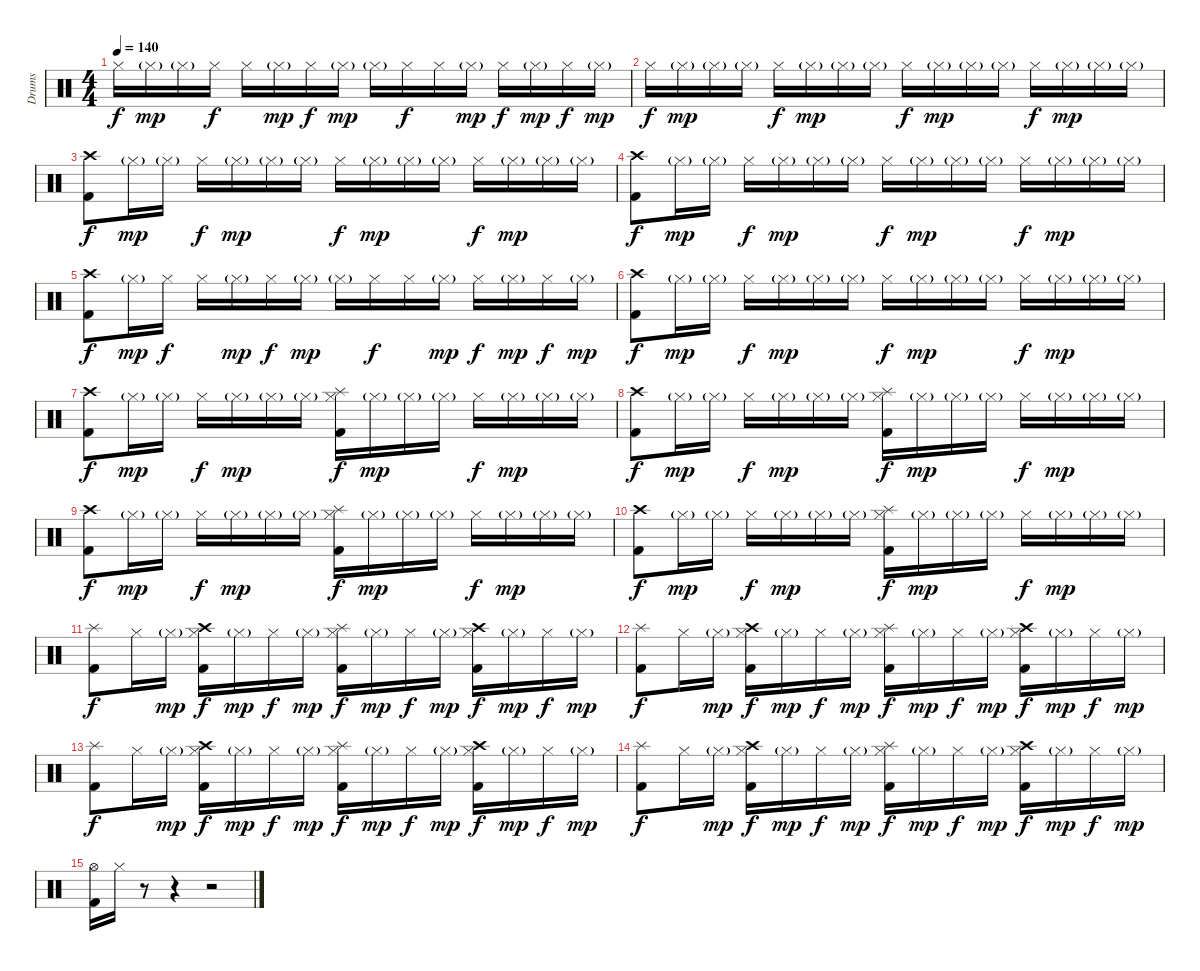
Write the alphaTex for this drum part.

\track ("Drums" "Drums") {instrument percussion}
\staff {score}
\articulation defaults
\ts (4 4)
\tempo 140
\clef neutral
\ks c "Hi-Hat (closed)".16{dy f} "Hi-Hat (closed)"{g}.16{dy mp} "Hi-Hat (closed)"{g}.16 "Hi-Hat (closed)".16{dy f} "Hi-Hat (closed)".16 "Hi-Hat (closed)"{g}.16{dy mp} "Hi-Hat (closed)".16{dy f} "Hi-Hat (closed)"{g}.16{dy mp} "Hi-Hat (closed)"{g}.16 "Hi-Hat (closed)".16{dy f} "Hi-Hat (closed)".16 "Hi-Hat (closed)"{g}.16{dy mp} "Hi-Hat (closed)".16{dy f} "Hi-Hat (closed)"{g}.16{dy mp} "Hi-Hat (closed)".16{dy f} "Hi-Hat (closed)"{g}.16{dy mp}
|
"Hi-Hat (closed)".16{dy f} "Hi-Hat (closed)"{g}.16{dy mp} "Hi-Hat (closed)"{g}.16 "Hi-Hat (closed)"{g}.16 "Hi-Hat (closed)".16{dy f} "Hi-Hat (closed)"{g}.16{dy mp} "Hi-Hat (closed)"{g}.16 "Hi-Hat (closed)"{g}.16 "Hi-Hat (closed)".16{dy f} "Hi-Hat (closed)"{g}.16{dy mp} "Hi-Hat (closed)"{g}.16 "Hi-Hat (closed)"{g}.16 "Hi-Hat (closed)".16{dy f} "Hi-Hat (closed)"{g}.16{dy mp} "Hi-Hat (closed)"{g}.16 "Hi-Hat (closed)"{g}.16 |
("Crash high (hit)" "Kick (hit) 2").8{dy f} "Hi-Hat (closed)"{g}.16{dy mp} "Hi-Hat (closed)"{g}.16 "Hi-Hat (closed)".16{dy f} "Hi-Hat (closed)"{g}.16{dy mp} "Hi-Hat (closed)"{g}.16 "Hi-Hat (closed)"{g}.16 "Hi-Hat (closed)".16{dy f} "Hi-Hat (closed)"{g}.16{dy mp} "Hi-Hat (closed)"{g}.16 "Hi-Hat (closed)"{g}.16 "Hi-Hat (closed)".16{dy f} "Hi-Hat (closed)"{g}.16{dy mp} "Hi-Hat (closed)"{g}.16 "Hi-Hat (closed)"{g}.16 |
("Crash high (hit)" "Kick (hit) 2").8{dy f} "Hi-Hat (closed)"{g}.16{dy mp} "Hi-Hat (closed)"{g}.16 "Hi-Hat (closed)".16{dy f} "Hi-Hat (closed)"{g}.16{dy mp} "Hi-Hat (closed)"{g}.16 "Hi-Hat (closed)"{g}.16 "Hi-Hat (closed)".16{dy f} "Hi-Hat (closed)"{g}.16{dy mp} "Hi-Hat (closed)"{g}.16 "Hi-Hat (closed)"{g}.16 "Hi-Hat (closed)".16{dy f} "Hi-Hat (closed)"{g}.16{dy mp} "Hi-Hat (closed)"{g}.16 "Hi-Hat (closed)"{g}.16 |
("Crash high (hit)" "Kick (hit) 2").8{dy f} "Hi-Hat (closed)"{g}.16{dy mp} "Hi-Hat (closed)".16{dy f} "Hi-Hat (closed)".16 "Hi-Hat (closed)"{g}.16{dy mp} "Hi-Hat (closed)".16{dy f} "Hi-Hat (closed)"{g}.16{dy mp} "Hi-Hat (closed)"{g}.16 "Hi-Hat (closed)".16{dy f} "Hi-Hat (closed)".16 "Hi-Hat (closed)"{g}.16{dy mp} "Hi-Hat (closed)".16{dy f} "Hi-Hat (closed)"{g}.16{dy mp} "Hi-Hat (closed)".16{dy f} "Hi-Hat (closed)"{g}.16{dy mp} |
("Crash high (hit)" "Kick (hit) 2").8{dy f} "Hi-Hat (closed)"{g}.16{dy mp} "Hi-Hat (closed)"{g}.16 "Hi-Hat (closed)".16{dy f} "Hi-Hat (closed)"{g}.16{dy mp} "Hi-Hat (closed)"{g}.16 "Hi-Hat (closed)"{g}.16 "Hi-Hat (closed)".16{dy f} "Hi-Hat (closed)"{g}.16{dy mp} "Hi-Hat (closed)"{g}.16 "Hi-Hat (closed)"{g}.16 "Hi-Hat (closed)".16{dy f} "Hi-Hat (closed)"{g}.16{dy mp} "Hi-Hat (closed)"{g}.16 "Hi-Hat (closed)"{g}.16 |
("Crash high (hit)" "Kick (hit) 2").8{dy f} "Hi-Hat (closed)"{g}.16{dy mp} "Hi-Hat (closed)"{g}.16 "Hi-Hat (closed)".16{dy f} "Hi-Hat (closed)"{g}.16{dy mp} "Hi-Hat (closed)"{g}.16 "Hi-Hat (closed)"{g}.16 ("Splash (hit)" "Hi-Hat (closed)" "Kick (hit) 2").16{dy f} "Hi-Hat (closed)"{g}.16{dy mp} "Hi-Hat (closed)"{g}.16 "Hi-Hat (closed)"{g}.16 "Hi-Hat (closed)".16{dy f} "Hi-Hat (closed)"{g}.16{dy mp} "Hi-Hat (closed)"{g}.16 "Hi-Hat (closed)"{g}.16 |
("Crash high (hit)" "Kick (hit) 2").8{dy f} "Hi-Hat (closed)"{g}.16{dy mp} "Hi-Hat (closed)"{g}.16 "Hi-Hat (closed)".16{dy f} "Hi-Hat (closed)"{g}.16{dy mp} "Hi-Hat (closed)"{g}.16 "Hi-Hat (closed)"{g}.16 ("Splash (hit)" "Hi-Hat (closed)" "Kick (hit) 2").16{dy f} "Hi-Hat (closed)"{g}.16{dy mp} "Hi-Hat (closed)"{g}.16 "Hi-Hat (closed)"{g}.16 "Hi-Hat (closed)".16{dy f} "Hi-Hat (closed)"{g}.16{dy mp} "Hi-Hat (closed)"{g}.16 "Hi-Hat (closed)"{g}.16 |
("Crash high (hit)" "Kick (hit) 2").8{dy f} "Hi-Hat (closed)"{g}.16{dy mp} "Hi-Hat (closed)"{g}.16 "Hi-Hat (closed)".16{dy f} "Hi-Hat (closed)"{g}.16{dy mp} "Hi-Hat (closed)"{g}.16 "Hi-Hat (closed)"{g}.16 ("Splash (hit)" "Hi-Hat (closed)" "Kick (hit) 2").16{dy f} "Hi-Hat (closed)"{g}.16{dy mp} "Hi-Hat (closed)"{g}.16 "Hi-Hat (closed)"{g}.16 "Hi-Hat (closed)".16{dy f} "Hi-Hat (closed)"{g}.16{dy mp} "Hi-Hat (closed)"{g}.16 "Hi-Hat (closed)"{g}.16 |
("Crash high (hit)" "Kick (hit) 2").8{dy f} "Hi-Hat (closed)"{g}.16{dy mp} "Hi-Hat (closed)"{g}.16 "Hi-Hat (closed)".16{dy f} "Hi-Hat (closed)"{g}.16{dy mp} "Hi-Hat (closed)"{g}.16 "Hi-Hat (closed)"{g}.16 ("Splash (hit)" "Hi-Hat (closed)" "Kick (hit) 2").16{dy f} "Hi-Hat (closed)"{g}.16{dy mp} "Hi-Hat (closed)"{g}.16 "Hi-Hat (closed)"{g}.16 "Hi-Hat (closed)".16{dy f} "Hi-Hat (closed)"{g}.16{dy mp} "Hi-Hat (closed)"{g}.16 "Hi-Hat (closed)"{g}.16 |
("Splash (hit)" "Kick (hit) 2").8{dy f} "Hi-Hat (closed)".16 "Hi-Hat (closed)"{g}.16{dy mp} ("Crash high (hit)" "Hi-Hat (closed)" "Kick (hit) 2").16{dy f} "Hi-Hat (closed)"{g}.16{dy mp} "Hi-Hat (closed)".16{dy f} "Hi-Hat (closed)"{g}.16{dy mp} ("Splash (hit)" "Hi-Hat (closed)" "Kick (hit) 2").16{dy f} "Hi-Hat (closed)"{g}.16{dy mp} "Hi-Hat (closed)".16{dy f} "Hi-Hat (closed)"{g}.16{dy mp} ("Crash high (hit)" "Hi-Hat (closed)" "Kick (hit) 2").16{dy f} "Hi-Hat (closed)"{g}.16{dy mp} "Hi-Hat (closed)".16{dy f} "Hi-Hat (closed)"{g}.16{dy mp} |
("Splash (hit)" "Kick (hit) 2").8{dy f} "Hi-Hat (closed)".16 "Hi-Hat (closed)"{g}.16{dy mp} ("Crash high (hit)" "Hi-Hat (closed)" "Kick (hit) 2").16{dy f} "Hi-Hat (closed)"{g}.16{dy mp} "Hi-Hat (closed)".16{dy f} "Hi-Hat (closed)"{g}.16{dy mp} ("Splash (hit)" "Hi-Hat (closed)" "Kick (hit) 2").16{dy f} "Hi-Hat (closed)"{g}.16{dy mp} "Hi-Hat (closed)".16{dy f} "Hi-Hat (closed)"{g}.16{dy mp} ("Crash high (hit)" "Hi-Hat (closed)" "Kick (hit) 2").16{dy f} "Hi-Hat (closed)"{g}.16{dy mp} "Hi-Hat (closed)".16{dy f} "Hi-Hat (closed)"{g}.16{dy mp} |
("Splash (hit)" "Kick (hit) 2").8{dy f} "Hi-Hat (closed)".16 "Hi-Hat (closed)"{g}.16{dy mp} ("Crash high (hit)" "Hi-Hat (closed)" "Kick (hit) 2").16{dy f} "Hi-Hat (closed)"{g}.16{dy mp} "Hi-Hat (closed)".16{dy f} "Hi-Hat (closed)"{g}.16{dy mp} ("Splash (hit)" "Hi-Hat (closed)" "Kick (hit) 2").16{dy f} "Hi-Hat (closed)"{g}.16{dy mp} "Hi-Hat (closed)".16{dy f} "Hi-Hat (closed)"{g}.16{dy mp} ("Crash high (hit)" "Hi-Hat (closed)" "Kick (hit) 2").16{dy f} "Hi-Hat (closed)"{g}.16{dy mp} "Hi-Hat (closed)".16{dy f} "Hi-Hat (closed)"{g}.16{dy mp} |
("Splash (hit)" "Kick (hit) 2").8{dy f} "Hi-Hat (closed)".16 "Hi-Hat (closed)"{g}.16{dy mp} ("Crash high (hit)" "Hi-Hat (closed)" "Kick (hit) 2").16{dy f} "Hi-Hat (closed)"{g}.16{dy mp} "Hi-Hat (closed)".16{dy f} "Hi-Hat (closed)"{g}.16{dy mp} ("Splash (hit)" "Hi-Hat (closed)" "Kick (hit) 2").16{dy f} "Hi-Hat (closed)"{g}.16{dy mp} "Hi-Hat (closed)".16{dy f} "Hi-Hat (closed)"{g}.16{dy mp} ("Crash high (hit)" "Hi-Hat (closed)" "Kick (hit) 2").16{dy f} "Hi-Hat (closed)"{g}.16{dy mp} "Hi-Hat (closed)".16{dy f} "Hi-Hat (closed)"{g}.16{dy mp} |
("Hi-Hat (open)" "Kick (hit) 2").16 "Hi-Hat (closed)".16 r.8 r.4 r.2
